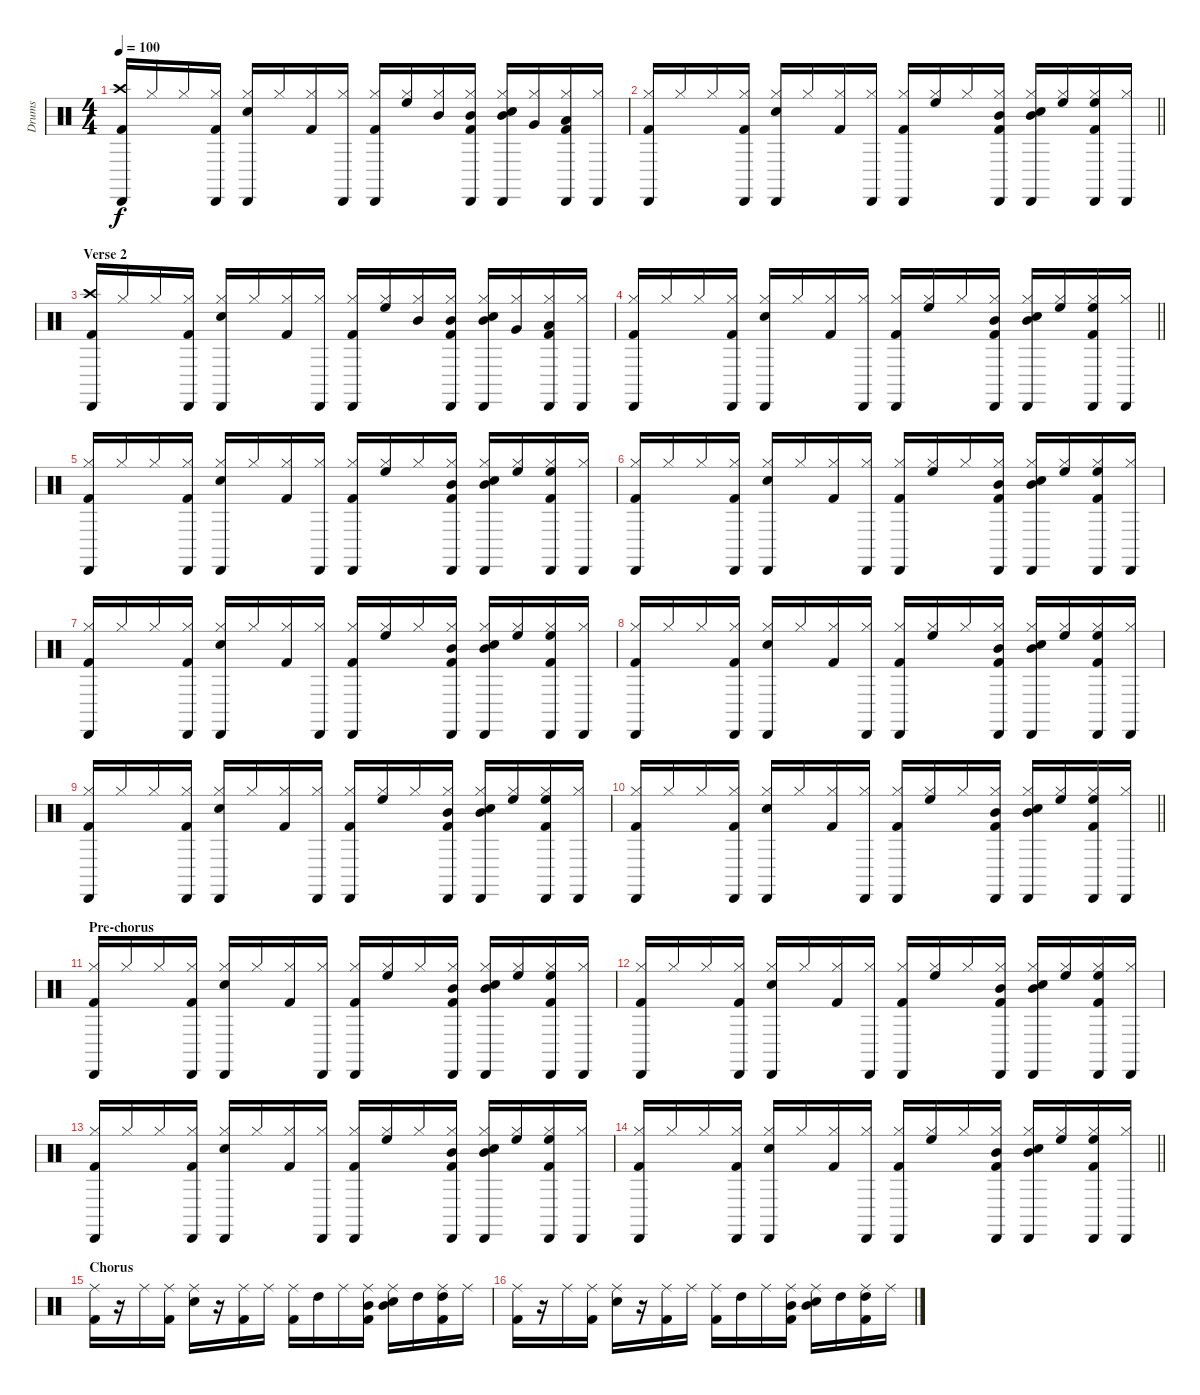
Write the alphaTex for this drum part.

\track ("Drums" "Drums") {instrument percussion}
\staff {score}
\articulation defaults
\ts (4 4)
\tempo 100
\clef neutral
\ks c
("Cabasa (hit)" "Crash high (hit)" "Kick (hit) 2").16{dy f} "Hi-Hat (closed)".16 "Hi-Hat (closed)".16 ("Hi-Hat (closed)" "Cabasa (hit)" "Kick (hit) 2").16 ("Hi-Hat (closed)" "Cabasa (hit)" "Snare (hit) 2").16 "Hi-Hat (closed)".16 ("Hi-Hat (closed)" "Kick (hit) 2").16 ("Hi-Hat (closed)" "Cabasa (hit)").16 ("Hi-Hat (closed)" "Cabasa (hit)" "Kick (hit) 2").16 ("Hi-Hat (closed)" "High Floor Tom (hit)").16 ("Hi-Hat (closed)" "Mid Tom (hit)").16 ("Hi-Hat (closed)" "Cabasa (hit)" "Mid Tom (hit)" "Kick (hit) 2").16 ("Hi-Hat (closed)" "Cabasa (hit)" "Mid Tom (hit)" "Snare (hit) 2").16 ("Hi-Hat (closed)" "Very Low Tom (hit)").16 ("Hi-Hat (closed)" "Cabasa (hit)" "Low Tom (hit)" "Kick (hit) 2").16 ("Hi-Hat (closed)" "Cabasa (hit)").16 |
\barLineRight lightlight
("Hi-Hat (closed)" "Cabasa (hit)" "Kick (hit) 2").16 "Hi-Hat (closed)".16 "Hi-Hat (closed)".16 ("Hi-Hat (closed)" "Cabasa (hit)" "Kick (hit) 2").16 ("Hi-Hat (closed)" "Cabasa (hit)" "Snare (hit) 2").16 "Hi-Hat (closed)".16 ("Hi-Hat (closed)" "Kick (hit) 2").16 ("Hi-Hat (closed)" "Cabasa (hit)").16 ("Hi-Hat (closed)" "Cabasa (hit)" "Kick (hit) 2").16 ("Hi-Hat (closed)" "High Floor Tom (hit)").16 "Hi-Hat (closed)".16 ("Hi-Hat (closed)" "Cabasa (hit)" "Mid Tom (hit)" "Kick (hit) 2").16 ("Hi-Hat (closed)" "Cabasa (hit)" "Mid Tom (hit)" "Snare (hit) 2").16 ("Hi-Hat (closed)" "High Floor Tom (hit)").16 ("Hi-Hat (closed)" "Cabasa (hit)" "High Floor Tom (hit)" "Kick (hit) 2").16 ("Hi-Hat (closed)" "Cabasa (hit)").16 |
\section ("" "Verse 2")
("Cabasa (hit)" "Crash high (hit)" "Kick (hit) 2").16 "Hi-Hat (closed)".16 "Hi-Hat (closed)".16 ("Hi-Hat (closed)" "Cabasa (hit)" "Kick (hit) 2").16 ("Hi-Hat (closed)" "Cabasa (hit)" "Snare (hit) 2").16 "Hi-Hat (closed)".16 ("Hi-Hat (closed)" "Kick (hit) 2").16 ("Hi-Hat (closed)" "Cabasa (hit)").16 ("Hi-Hat (closed)" "Cabasa (hit)" "Kick (hit) 2").16 ("Hi-Hat (closed)" "High Floor Tom (hit)").16 ("Hi-Hat (closed)" "Mid Tom (hit)").16 ("Hi-Hat (closed)" "Cabasa (hit)" "Mid Tom (hit)" "Kick (hit) 2").16 ("Hi-Hat (closed)" "Cabasa (hit)" "Mid Tom (hit)" "Snare (hit) 2").16 ("Hi-Hat (closed)" "Very Low Tom (hit)").16 ("Hi-Hat (closed)" "Cabasa (hit)" "Low Tom (hit)" "Kick (hit) 2").16 ("Hi-Hat (closed)" "Cabasa (hit)").16 |
\barLineRight lightlight
("Hi-Hat (closed)" "Cabasa (hit)" "Kick (hit) 2").16 "Hi-Hat (closed)".16 "Hi-Hat (closed)".16 ("Hi-Hat (closed)" "Cabasa (hit)" "Kick (hit) 2").16 ("Hi-Hat (closed)" "Cabasa (hit)" "Snare (hit) 2").16 "Hi-Hat (closed)".16 ("Hi-Hat (closed)" "Kick (hit) 2").16 ("Hi-Hat (closed)" "Cabasa (hit)").16 ("Hi-Hat (closed)" "Cabasa (hit)" "Kick (hit) 2").16 ("Hi-Hat (closed)" "High Floor Tom (hit)").16 "Hi-Hat (closed)".16 ("Hi-Hat (closed)" "Cabasa (hit)" "Mid Tom (hit)" "Kick (hit) 2").16 ("Hi-Hat (closed)" "Cabasa (hit)" "Mid Tom (hit)" "Snare (hit) 2").16 ("Hi-Hat (closed)" "High Floor Tom (hit)").16 ("Hi-Hat (closed)" "Cabasa (hit)" "High Floor Tom (hit)" "Kick (hit) 2").16 ("Hi-Hat (closed)" "Cabasa (hit)").16 |
("Hi-Hat (closed)" "Cabasa (hit)" "Kick (hit) 2").16 "Hi-Hat (closed)".16 "Hi-Hat (closed)".16 ("Hi-Hat (closed)" "Cabasa (hit)" "Kick (hit) 2").16 ("Hi-Hat (closed)" "Cabasa (hit)" "Snare (hit) 2").16 "Hi-Hat (closed)".16 ("Hi-Hat (closed)" "Kick (hit) 2").16 ("Hi-Hat (closed)" "Cabasa (hit)").16 ("Hi-Hat (closed)" "Cabasa (hit)" "Kick (hit) 2").16 ("Hi-Hat (closed)" "High Floor Tom (hit)").16 "Hi-Hat (closed)".16 ("Hi-Hat (closed)" "Cabasa (hit)" "Mid Tom (hit)" "Kick (hit) 2").16 ("Hi-Hat (closed)" "Cabasa (hit)" "Mid Tom (hit)" "Snare (hit) 2").16 ("Hi-Hat (closed)" "High Floor Tom (hit)").16 ("Hi-Hat (closed)" "Cabasa (hit)" "High Floor Tom (hit)" "Kick (hit) 2").16 ("Hi-Hat (closed)" "Cabasa (hit)").16 |
("Hi-Hat (closed)" "Cabasa (hit)" "Kick (hit) 2").16 "Hi-Hat (closed)".16 "Hi-Hat (closed)".16 ("Hi-Hat (closed)" "Cabasa (hit)" "Kick (hit) 2").16 ("Hi-Hat (closed)" "Cabasa (hit)" "Snare (hit) 2").16 "Hi-Hat (closed)".16 ("Hi-Hat (closed)" "Kick (hit) 2").16 ("Hi-Hat (closed)" "Cabasa (hit)").16 ("Hi-Hat (closed)" "Cabasa (hit)" "Kick (hit) 2").16 ("Hi-Hat (closed)" "High Floor Tom (hit)").16 "Hi-Hat (closed)".16 ("Hi-Hat (closed)" "Cabasa (hit)" "Mid Tom (hit)" "Kick (hit) 2").16 ("Hi-Hat (closed)" "Cabasa (hit)" "Mid Tom (hit)" "Snare (hit) 2").16 ("Hi-Hat (closed)" "High Floor Tom (hit)").16 ("Hi-Hat (closed)" "Cabasa (hit)" "High Floor Tom (hit)" "Kick (hit) 2").16 ("Hi-Hat (closed)" "Cabasa (hit)").16 |
("Hi-Hat (closed)" "Cabasa (hit)" "Kick (hit) 2").16 "Hi-Hat (closed)".16 "Hi-Hat (closed)".16 ("Hi-Hat (closed)" "Cabasa (hit)" "Kick (hit) 2").16 ("Hi-Hat (closed)" "Cabasa (hit)" "Snare (hit) 2").16 "Hi-Hat (closed)".16 ("Hi-Hat (closed)" "Kick (hit) 2").16 ("Hi-Hat (closed)" "Cabasa (hit)").16 ("Hi-Hat (closed)" "Cabasa (hit)" "Kick (hit) 2").16 ("Hi-Hat (closed)" "High Floor Tom (hit)").16 "Hi-Hat (closed)".16 ("Hi-Hat (closed)" "Cabasa (hit)" "Mid Tom (hit)" "Kick (hit) 2").16 ("Hi-Hat (closed)" "Cabasa (hit)" "Mid Tom (hit)" "Snare (hit) 2").16 ("Hi-Hat (closed)" "High Floor Tom (hit)").16 ("Hi-Hat (closed)" "Cabasa (hit)" "High Floor Tom (hit)" "Kick (hit) 2").16 ("Hi-Hat (closed)" "Cabasa (hit)").16 |
("Hi-Hat (closed)" "Cabasa (hit)" "Kick (hit) 2").16 "Hi-Hat (closed)".16 "Hi-Hat (closed)".16 ("Hi-Hat (closed)" "Cabasa (hit)" "Kick (hit) 2").16 ("Hi-Hat (closed)" "Cabasa (hit)" "Snare (hit) 2").16 "Hi-Hat (closed)".16 ("Hi-Hat (closed)" "Kick (hit) 2").16 ("Hi-Hat (closed)" "Cabasa (hit)").16 ("Hi-Hat (closed)" "Cabasa (hit)" "Kick (hit) 2").16 ("Hi-Hat (closed)" "High Floor Tom (hit)").16 "Hi-Hat (closed)".16 ("Hi-Hat (closed)" "Cabasa (hit)" "Mid Tom (hit)" "Kick (hit) 2").16 ("Hi-Hat (closed)" "Cabasa (hit)" "Mid Tom (hit)" "Snare (hit) 2").16 ("Hi-Hat (closed)" "High Floor Tom (hit)").16 ("Hi-Hat (closed)" "Cabasa (hit)" "High Floor Tom (hit)" "Kick (hit) 2").16 ("Hi-Hat (closed)" "Cabasa (hit)").16 |
("Hi-Hat (closed)" "Cabasa (hit)" "Kick (hit) 2").16 "Hi-Hat (closed)".16 "Hi-Hat (closed)".16 ("Hi-Hat (closed)" "Cabasa (hit)" "Kick (hit) 2").16 ("Hi-Hat (closed)" "Cabasa (hit)" "Snare (hit) 2").16 "Hi-Hat (closed)".16 ("Hi-Hat (closed)" "Kick (hit) 2").16 ("Hi-Hat (closed)" "Cabasa (hit)").16 ("Hi-Hat (closed)" "Cabasa (hit)" "Kick (hit) 2").16 ("Hi-Hat (closed)" "High Floor Tom (hit)").16 "Hi-Hat (closed)".16 ("Hi-Hat (closed)" "Cabasa (hit)" "Mid Tom (hit)" "Kick (hit) 2").16 ("Hi-Hat (closed)" "Cabasa (hit)" "Mid Tom (hit)" "Snare (hit) 2").16 ("Hi-Hat (closed)" "High Floor Tom (hit)").16 ("Hi-Hat (closed)" "Cabasa (hit)" "High Floor Tom (hit)" "Kick (hit) 2").16 ("Hi-Hat (closed)" "Cabasa (hit)").16 |
\barLineRight lightlight
("Hi-Hat (closed)" "Cabasa (hit)" "Kick (hit) 2").16 "Hi-Hat (closed)".16 "Hi-Hat (closed)".16 ("Hi-Hat (closed)" "Cabasa (hit)" "Kick (hit) 2").16 ("Hi-Hat (closed)" "Cabasa (hit)" "Snare (hit) 2").16 "Hi-Hat (closed)".16 ("Hi-Hat (closed)" "Kick (hit) 2").16 ("Hi-Hat (closed)" "Cabasa (hit)").16 ("Hi-Hat (closed)" "Cabasa (hit)" "Kick (hit) 2").16 ("Hi-Hat (closed)" "High Floor Tom (hit)").16 "Hi-Hat (closed)".16 ("Hi-Hat (closed)" "Cabasa (hit)" "Mid Tom (hit)" "Kick (hit) 2").16 ("Hi-Hat (closed)" "Cabasa (hit)" "Mid Tom (hit)" "Snare (hit) 2").16 ("Hi-Hat (closed)" "High Floor Tom (hit)").16 ("Hi-Hat (closed)" "Cabasa (hit)" "High Floor Tom (hit)" "Kick (hit) 2").16 ("Hi-Hat (closed)" "Cabasa (hit)").16 |
\section ("" "Pre-chorus")
("Hi-Hat (closed)" "Cabasa (hit)" "Kick (hit) 2").16 "Hi-Hat (closed)".16 "Hi-Hat (closed)".16 ("Hi-Hat (closed)" "Cabasa (hit)" "Kick (hit) 2").16 ("Hi-Hat (closed)" "Cabasa (hit)" "Snare (hit) 2").16 "Hi-Hat (closed)".16 ("Hi-Hat (closed)" "Kick (hit) 2").16 ("Hi-Hat (closed)" "Cabasa (hit)").16 ("Hi-Hat (closed)" "Cabasa (hit)" "Kick (hit) 2").16 ("Hi-Hat (closed)" "High Floor Tom (hit)").16 "Hi-Hat (closed)".16 ("Hi-Hat (closed)" "Cabasa (hit)" "Mid Tom (hit)" "Kick (hit) 2").16 ("Hi-Hat (closed)" "Cabasa (hit)" "Mid Tom (hit)" "Snare (hit) 2").16 ("Hi-Hat (closed)" "High Floor Tom (hit)").16 ("Hi-Hat (closed)" "Cabasa (hit)" "High Floor Tom (hit)" "Kick (hit) 2").16 ("Hi-Hat (closed)" "Cabasa (hit)").16 |
("Hi-Hat (closed)" "Cabasa (hit)" "Kick (hit) 2").16 "Hi-Hat (closed)".16 "Hi-Hat (closed)".16 ("Hi-Hat (closed)" "Cabasa (hit)" "Kick (hit) 2").16 ("Hi-Hat (closed)" "Cabasa (hit)" "Snare (hit) 2").16 "Hi-Hat (closed)".16 ("Hi-Hat (closed)" "Kick (hit) 2").16 ("Hi-Hat (closed)" "Cabasa (hit)").16 ("Hi-Hat (closed)" "Cabasa (hit)" "Kick (hit) 2").16 ("Hi-Hat (closed)" "High Floor Tom (hit)").16 "Hi-Hat (closed)".16 ("Hi-Hat (closed)" "Cabasa (hit)" "Mid Tom (hit)" "Kick (hit) 2").16 ("Hi-Hat (closed)" "Cabasa (hit)" "Mid Tom (hit)" "Snare (hit) 2").16 ("Hi-Hat (closed)" "High Floor Tom (hit)").16 ("Hi-Hat (closed)" "Cabasa (hit)" "High Floor Tom (hit)" "Kick (hit) 2").16 ("Hi-Hat (closed)" "Cabasa (hit)").16 |
("Hi-Hat (closed)" "Cabasa (hit)" "Kick (hit) 2").16 "Hi-Hat (closed)".16 "Hi-Hat (closed)".16 ("Hi-Hat (closed)" "Cabasa (hit)" "Kick (hit) 2").16 ("Hi-Hat (closed)" "Cabasa (hit)" "Snare (hit) 2").16 "Hi-Hat (closed)".16 ("Hi-Hat (closed)" "Kick (hit) 2").16 ("Hi-Hat (closed)" "Cabasa (hit)").16 ("Hi-Hat (closed)" "Cabasa (hit)" "Kick (hit) 2").16 ("Hi-Hat (closed)" "High Floor Tom (hit)").16 "Hi-Hat (closed)".16 ("Hi-Hat (closed)" "Cabasa (hit)" "Mid Tom (hit)" "Kick (hit) 2").16 ("Hi-Hat (closed)" "Cabasa (hit)" "Mid Tom (hit)" "Snare (hit) 2").16 ("Hi-Hat (closed)" "High Floor Tom (hit)").16 ("Hi-Hat (closed)" "Cabasa (hit)" "High Floor Tom (hit)" "Kick (hit) 2").16 ("Hi-Hat (closed)" "Cabasa (hit)").16 |
\barLineRight lightlight
("Hi-Hat (closed)" "Cabasa (hit)" "Kick (hit) 2").16 "Hi-Hat (closed)".16 "Hi-Hat (closed)".16 ("Hi-Hat (closed)" "Cabasa (hit)" "Kick (hit) 2").16 ("Hi-Hat (closed)" "Cabasa (hit)" "Snare (hit) 2").16 "Hi-Hat (closed)".16 ("Hi-Hat (closed)" "Kick (hit) 2").16 ("Hi-Hat (closed)" "Cabasa (hit)").16 ("Hi-Hat (closed)" "Cabasa (hit)" "Kick (hit) 2").16 ("Hi-Hat (closed)" "High Floor Tom (hit)").16 "Hi-Hat (closed)".16 ("Hi-Hat (closed)" "Cabasa (hit)" "Mid Tom (hit)" "Kick (hit) 2").16 ("Hi-Hat (closed)" "Cabasa (hit)" "Mid Tom (hit)" "Snare (hit) 2").16 ("Hi-Hat (closed)" "High Floor Tom (hit)").16 ("Hi-Hat (closed)" "Cabasa (hit)" "High Floor Tom (hit)" "Kick (hit) 2").16 ("Hi-Hat (closed)" "Cabasa (hit)").16 |
\section ("" "Chorus")
("Ride (middle)" "Kick (hit) 2").16 r.16 "Ride (middle)".16 ("Ride (middle)" "Kick (hit) 2").16 ("Ride (middle)" "Snare (hit) 2").16 r.16 ("Ride (middle)" "Kick (hit) 2").16 "Ride (middle)".16 ("Ride (middle)" "Kick (hit) 2").16 "High Tom (hit)".16 "Ride (middle)".16 ("Ride (middle)" "Mid Tom (hit)" "Kick (hit) 2").16 ("Ride (middle)" "Mid Tom (hit)" "Snare (hit) 2").16 "High Tom (hit)".16 ("Ride (middle)" "High Tom (hit)" "Kick (hit) 2").16 "Ride (middle)".16 |
("Ride (middle)" "Kick (hit) 2").16 r.16 "Ride (middle)".16 ("Ride (middle)" "Kick (hit) 2").16 ("Ride (middle)" "Snare (hit) 2").16 r.16 ("Ride (middle)" "Kick (hit) 2").16 "Ride (middle)".16 ("Ride (middle)" "Kick (hit) 2").16 "High Tom (hit)".16 "Ride (middle)".16 ("Ride (middle)" "Mid Tom (hit)" "Kick (hit) 2").16 ("Ride (middle)" "Mid Tom (hit)" "Snare (hit) 2").16 "High Tom (hit)".16 ("Ride (middle)" "High Tom (hit)" "Kick (hit) 2").16 "Ride (middle)".16
